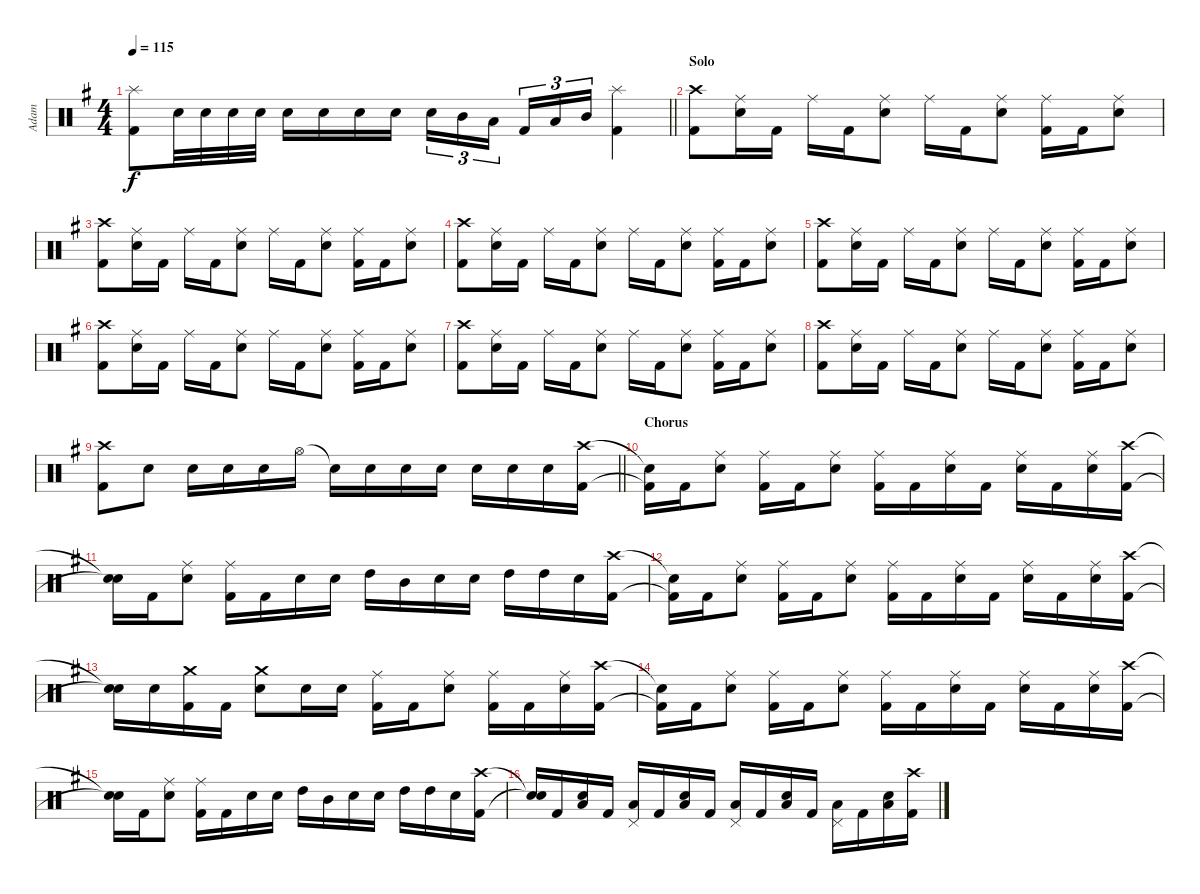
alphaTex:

\track ("Adam" "Adam") {instrument percussion}
\staff {score}
\articulation defaults
\ts (4 4)
\tempo 115
\clef neutral
\barLineRight lightlight
\ks g
("Splash (hit)" "Kick (hit) 2").8{dy f} "Snare (hit) 2".32 "Snare (hit) 2".32 "Snare (hit) 2".32 "Snare (hit) 2".32 "Snare (hit) 2".16 "Snare (hit) 2".16 "Snare (hit) 2".16 "Snare (hit) 2".16 "Snare (hit) 2".16{tu (3 2)} "Mid Tom (hit)".16{tu (3 2)} "Low Tom (hit)".16{tu (3 2) beam splitsecondary} "Kick (hit) 2".16{tu (3 2)} "Low Tom (hit)".16{tu (3 2)} "Mid Tom (hit)".16{tu (3 2)} ("Splash (hit)" "Kick (hit) 2").4 |
\section ("" "Solo")
("Crash high (hit)" "Kick (hit) 2").8 ("Ride (middle)" "Snare (hit) 2").16 "Kick (hit) 2".16 "Ride (middle)".16 "Kick (hit) 2".16 ("Ride (middle)" "Snare (hit) 2").8 "Ride (middle)".16 "Kick (hit) 2".16 ("Ride (middle)" "Snare (hit) 2").8 ("Ride (middle)" "Kick (hit) 2").16 "Kick (hit) 2".16 ("Ride (middle)" "Snare (hit) 2").8 |
("Crash high (hit)" "Kick (hit) 2").8 ("Ride (middle)" "Snare (hit) 2").16 "Kick (hit) 2".16 "Ride (middle)".16 "Kick (hit) 2".16 ("Ride (middle)" "Snare (hit) 2").8 "Ride (middle)".16 "Kick (hit) 2".16 ("Ride (middle)" "Snare (hit) 2").8 ("Ride (middle)" "Kick (hit) 2").16 "Kick (hit) 2".16 ("Ride (middle)" "Snare (hit) 2").8 |
("Crash high (hit)" "Kick (hit) 2").8 ("Ride (middle)" "Snare (hit) 2").16 "Kick (hit) 2".16 "Ride (middle)".16 "Kick (hit) 2".16 ("Ride (middle)" "Snare (hit) 2").8 "Ride (middle)".16 "Kick (hit) 2".16 ("Ride (middle)" "Snare (hit) 2").8 ("Ride (middle)" "Kick (hit) 2").16 "Kick (hit) 2".16 ("Ride (middle)" "Snare (hit) 2").8 |
("Crash high (hit)" "Kick (hit) 2").8 ("Ride (middle)" "Snare (hit) 2").16 "Kick (hit) 2".16 "Ride (middle)".16 "Kick (hit) 2".16 ("Ride (middle)" "Snare (hit) 2").8 "Ride (middle)".16 "Kick (hit) 2".16 ("Ride (middle)" "Snare (hit) 2").8 ("Ride (middle)" "Kick (hit) 2").16 "Kick (hit) 2".16 ("Ride (middle)" "Snare (hit) 2").8 |
("Crash high (hit)" "Kick (hit) 2").8 ("Ride (middle)" "Snare (hit) 2").16 "Kick (hit) 2".16 "Ride (middle)".16 "Kick (hit) 2".16 ("Ride (middle)" "Snare (hit) 2").8 "Ride (middle)".16 "Kick (hit) 2".16 ("Ride (middle)" "Snare (hit) 2").8 ("Ride (middle)" "Kick (hit) 2").16 "Kick (hit) 2".16 ("Ride (middle)" "Snare (hit) 2").8 |
("Crash high (hit)" "Kick (hit) 2").8 ("Ride (middle)" "Snare (hit) 2").16 "Kick (hit) 2".16 "Ride (middle)".16 "Kick (hit) 2".16 ("Ride (middle)" "Snare (hit) 2").8 "Ride (middle)".16 "Kick (hit) 2".16 ("Ride (middle)" "Snare (hit) 2").8 ("Ride (middle)" "Kick (hit) 2").16 "Kick (hit) 2".16 ("Ride (middle)" "Snare (hit) 2").8 |
("Crash high (hit)" "Kick (hit) 2").8 ("Ride (middle)" "Snare (hit) 2").16 "Kick (hit) 2".16 "Ride (middle)".16 "Kick (hit) 2".16 ("Ride (middle)" "Snare (hit) 2").8 "Ride (middle)".16 "Kick (hit) 2".16 ("Ride (middle)" "Snare (hit) 2").8 ("Ride (middle)" "Kick (hit) 2").16 "Kick (hit) 2".16 ("Ride (middle)" "Snare (hit) 2").8 |
\barLineRight lightlight
("Crash high (hit)" "Kick (hit) 2").8 "Snare (hit) 2".8 "Snare (hit) 2".16 "Snare (hit) 2".16 "Snare (hit) 2".16 "Hi-Hat (open)".16 "Snare (hit)"{t}.16 "Snare (hit) 2".16 "Snare (hit) 2".16 "Snare (hit) 2".16 "Snare (hit) 2".16 "Snare (hit) 2".16 "Snare (hit) 2".16 ("Crash high (hit)" "Kick (hit) 2").16 |
\section ("" "Chorus")
("Snare (hit)"{t} "Kick (hit) 2"{t}).16 "Kick (hit) 2".16 ("Ride (middle)" "Snare (hit) 2").8 ("Ride (middle)" "Kick (hit) 2").16 "Kick (hit) 2".16 ("Ride (middle)" "Snare (hit) 2").8 ("Ride (middle)" "Kick (hit) 2").16 "Kick (hit) 2".16 ("Ride (middle)" "Snare (hit) 2").16 "Kick (hit) 2".16 ("Ride (middle)" "Snare (hit) 2").16 "Kick (hit) 2".16 ("Ride (middle)" "Snare (hit) 2").16 ("Crash high (hit)" "Kick (hit) 2").16 |
("Snare (hit)"{t} "Snare (hit)"{t}).16 "Kick (hit) 2".16 ("Ride (middle)" "Snare (hit) 2").8 ("Ride (middle)" "Kick (hit) 2").16 "Kick (hit) 2".16 "Snare (hit) 2".16 "Snare (hit) 2".16 "High Tom (hit)".16 "Mid Tom (hit)".16 "Snare (hit) 2".16 "Snare (hit) 2".16 "High Tom (hit)".16 "High Tom (hit)".16 "Snare (hit) 2".16 ("Crash high (hit)" "Kick (hit) 2").16 |
("Snare (hit)"{t} "Kick (hit) 2"{t}).16 "Kick (hit) 2".16 ("Ride (middle)" "Snare (hit) 2").8 ("Ride (middle)" "Kick (hit) 2").16 "Kick (hit) 2".16 ("Ride (middle)" "Snare (hit) 2").8 ("Ride (middle)" "Kick (hit) 2").16 "Kick (hit) 2".16 ("Ride (middle)" "Snare (hit) 2").16 "Kick (hit) 2".16 ("Ride (middle)" "Snare (hit) 2").16 "Kick (hit) 2".16 ("Ride (middle)" "Snare (hit) 2").16 ("Crash high (hit)" "Kick (hit) 2").16 |
("Snare (hit)"{t} "Snare (hit)"{t}).16 "Snare (hit) 2".16 ("Crash medium (hit)" "Kick (hit) 2").16 "Kick (hit) 2".16 ("Crash medium (hit)" "Snare (hit) 2").8 "Snare (hit) 2".16 "Snare (hit) 2".16 ("Ride (middle)" "Kick (hit) 2").16 "Kick (hit) 2".16 ("Ride (middle)" "Snare (hit) 2").8 ("Ride (middle)" "Kick (hit) 2").16 "Kick (hit) 2".16 ("Ride (middle)" "Snare (hit) 2").16 ("Crash high (hit)" "Kick (hit) 2").16 |
("Snare (hit)"{t} "Kick (hit) 2"{t}).16 "Kick (hit) 2".16 ("Ride (middle)" "Snare (hit) 2").8 ("Ride (middle)" "Kick (hit) 2").16 "Kick (hit) 2".16 ("Ride (middle)" "Snare (hit) 2").8 ("Ride (middle)" "Kick (hit) 2").16 "Kick (hit) 2".16 ("Ride (middle)" "Snare (hit) 2").16 "Kick (hit) 2".16 ("Ride (middle)" "Snare (hit) 2").16 "Kick (hit) 2".16 ("Ride (middle)" "Snare (hit) 2").16 ("Crash high (hit)" "Kick (hit) 2").16 |
("Snare (hit)"{t} "Snare (hit)"{t}).16 "Kick (hit) 2".16 ("Ride (middle)" "Snare (hit) 2").8 ("Ride (middle)" "Kick (hit) 2").16 "Kick (hit) 2".16 "Snare (hit) 2".16 "Snare (hit) 2".16 "High Tom (hit)".16 "Mid Tom (hit)".16 "Snare (hit) 2".16 "Snare (hit) 2".16 "High Tom (hit)".16 "High Tom (hit)".16 "Snare (hit) 2".16 ("Crash high (hit)" "Kick (hit) 2").16 |
("Snare (hit)"{t} "Snare (hit)"{t}).16 "Kick (hit) 2".16 ("Snare (hit) 2" "Low Tom (hit)").16 "Kick (hit) 2".16 ("Low Tom (hit)" "Pedal Hi-Hat (hit)").16 "Kick (hit) 2".16 ("Snare (hit) 2" "Low Tom (hit)").16 "Kick (hit) 2".16 ("Low Tom (hit)" "Pedal Hi-Hat (hit)").16 "Kick (hit) 2".16 ("Snare (hit) 2" "Low Tom (hit)").16 "Kick (hit) 2".16 ("Low Tom (hit)" "Pedal Hi-Hat (hit)").16 "Kick (hit) 2".16 ("Snare (hit) 2" "Low Tom (hit)").16 ("Crash high (hit)" "Kick (hit) 2").16
